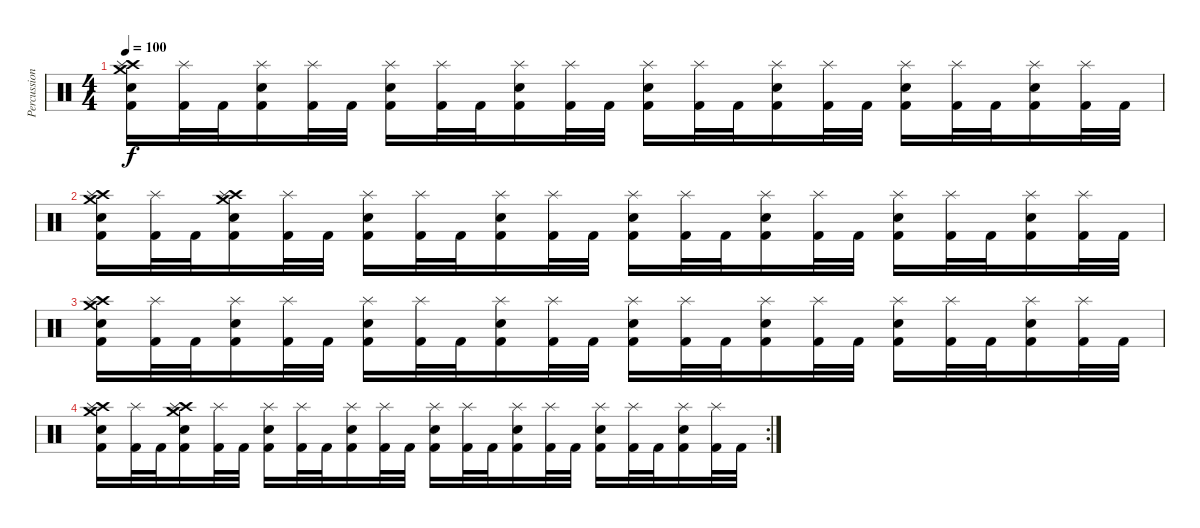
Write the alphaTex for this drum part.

\track ("Percussion" "Percussion") {instrument percussion}
\staff {score}
\articulation defaults
\ts (4 4)
\section ("" "")
\tempo 100
\clef neutral
\ks c
("Crash high (hit)" "Electric Snare (hit)" "Kick (hit) 2" "Crash medium (hit)" "Splash (hit)").16{dy f} ("Kick (hit) 2" "Splash (hit)").32 "Kick (hit) 2".32 ("Electric Snare (hit)" "Kick (hit) 2" "Splash (hit)").16 ("Kick (hit) 2" "Splash (hit)").32 "Kick (hit) 2".32 ("Electric Snare (hit)" "Kick (hit) 2" "Splash (hit)").16 ("Kick (hit) 2" "Splash (hit)").32 "Kick (hit) 2".32 ("Electric Snare (hit)" "Kick (hit) 2" "Splash (hit)").16 ("Kick (hit) 2" "Splash (hit)").32 "Kick (hit) 2".32 ("Electric Snare (hit)" "Kick (hit) 2" "Splash (hit)").16 ("Kick (hit) 2" "Splash (hit)").32 "Kick (hit) 2".32 ("Electric Snare (hit)" "Kick (hit) 2" "Splash (hit)").16 ("Kick (hit) 2" "Splash (hit)").32 "Kick (hit) 2".32 ("Electric Snare (hit)" "Kick (hit) 2" "Splash (hit)").16 ("Kick (hit) 2" "Splash (hit)").32 "Kick (hit) 2".32 ("Electric Snare (hit)" "Kick (hit) 2" "Splash (hit)").16 ("Kick (hit) 2" "Splash (hit)").32 "Kick (hit) 2".32 |
("Crash high (hit)" "Electric Snare (hit)" "Kick (hit) 2" "Crash medium (hit)" "Splash (hit)").16 ("Kick (hit) 2" "Splash (hit)").32 "Kick (hit) 2".32 ("Crash high (hit)" "Electric Snare (hit)" "Kick (hit) 2" "Crash medium (hit)" "Splash (hit)").16 ("Kick (hit) 2" "Splash (hit)").32 "Kick (hit) 2".32 ("Electric Snare (hit)" "Kick (hit) 2" "Splash (hit)").16 ("Kick (hit) 2" "Splash (hit)").32 "Kick (hit) 2".32 ("Electric Snare (hit)" "Kick (hit) 2" "Splash (hit)").16 ("Kick (hit) 2" "Splash (hit)").32 "Kick (hit) 2".32 ("Electric Snare (hit)" "Kick (hit) 2" "Splash (hit)").16 ("Kick (hit) 2" "Splash (hit)").32 "Kick (hit) 2".32 ("Electric Snare (hit)" "Kick (hit) 2" "Splash (hit)").16 ("Kick (hit) 2" "Splash (hit)").32 "Kick (hit) 2".32 ("Electric Snare (hit)" "Kick (hit) 2" "Splash (hit)").16 ("Kick (hit) 2" "Splash (hit)").32 "Kick (hit) 2".32 ("Electric Snare (hit)" "Kick (hit) 2" "Splash (hit)").16 ("Kick (hit) 2" "Splash (hit)").32 "Kick (hit) 2".32 |
("Crash high (hit)" "Electric Snare (hit)" "Kick (hit) 2" "Crash medium (hit)" "Splash (hit)").16 ("Kick (hit) 2" "Splash (hit)").32 "Kick (hit) 2".32 ("Electric Snare (hit)" "Kick (hit) 2" "Splash (hit)").16 ("Kick (hit) 2" "Splash (hit)").32 "Kick (hit) 2".32 ("Electric Snare (hit)" "Kick (hit) 2" "Splash (hit)").16 ("Kick (hit) 2" "Splash (hit)").32 "Kick (hit) 2".32 ("Electric Snare (hit)" "Kick (hit) 2" "Splash (hit)").16 ("Kick (hit) 2" "Splash (hit)").32 "Kick (hit) 2".32 ("Electric Snare (hit)" "Kick (hit) 2" "Splash (hit)").16 ("Kick (hit) 2" "Splash (hit)").32 "Kick (hit) 2".32 ("Electric Snare (hit)" "Kick (hit) 2" "Splash (hit)").16 ("Kick (hit) 2" "Splash (hit)").32 "Kick (hit) 2".32 ("Electric Snare (hit)" "Kick (hit) 2" "Splash (hit)").16 ("Kick (hit) 2" "Splash (hit)").32 "Kick (hit) 2".32 ("Electric Snare (hit)" "Kick (hit) 2" "Splash (hit)").16 ("Kick (hit) 2" "Splash (hit)").32 "Kick (hit) 2".32 |
\rc 2
("Crash high (hit)" "Electric Snare (hit)" "Kick (hit) 2" "Crash medium (hit)" "Splash (hit)").16 ("Kick (hit) 2" "Splash (hit)").32 "Kick (hit) 2".32 ("Crash high (hit)" "Electric Snare (hit)" "Kick (hit) 2" "Crash medium (hit)" "Splash (hit)").16 ("Kick (hit) 2" "Splash (hit)").32 "Kick (hit) 2".32 ("Electric Snare (hit)" "Kick (hit) 2" "Splash (hit)").16 ("Kick (hit) 2" "Splash (hit)").32 "Kick (hit) 2".32 ("Electric Snare (hit)" "Kick (hit) 2" "Splash (hit)").16 ("Kick (hit) 2" "Splash (hit)").32 "Kick (hit) 2".32 ("Electric Snare (hit)" "Kick (hit) 2" "Splash (hit)").16 ("Kick (hit) 2" "Splash (hit)").32 "Kick (hit) 2".32 ("Electric Snare (hit)" "Kick (hit) 2" "Splash (hit)").16 ("Kick (hit) 2" "Splash (hit)").32 "Kick (hit) 2".32 ("Electric Snare (hit)" "Kick (hit) 2" "Splash (hit)").16 ("Kick (hit) 2" "Splash (hit)").32 "Kick (hit) 2".32 ("Electric Snare (hit)" "Kick (hit) 2" "Splash (hit)").16 ("Kick (hit) 2" "Splash (hit)").32 "Kick (hit) 2".32
